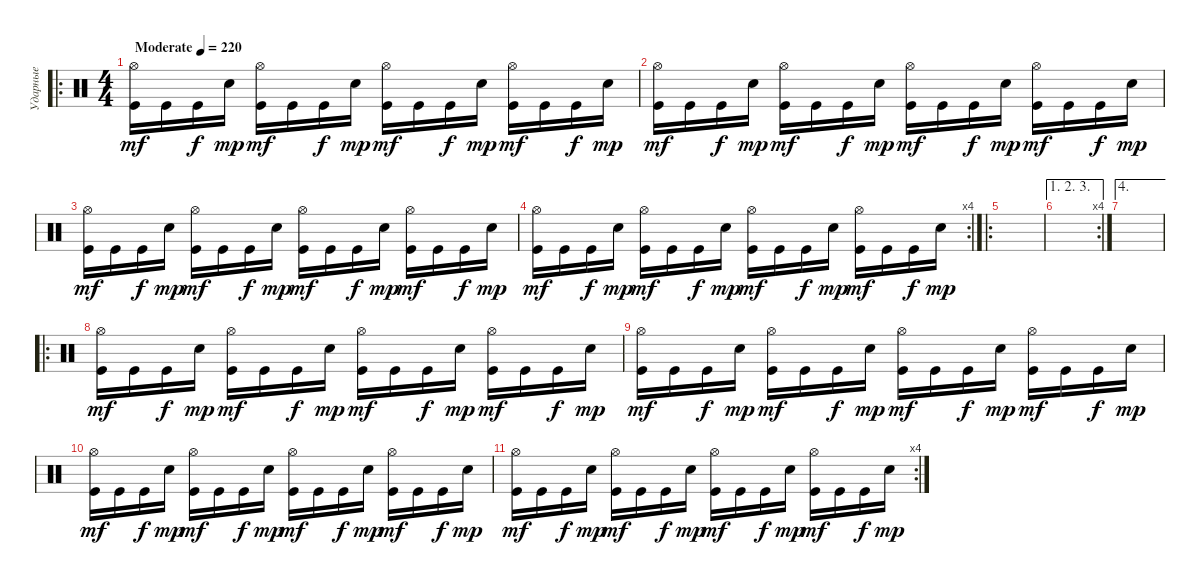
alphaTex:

\track ("Ударные" "Ударные") {instrument percussion}
\staff {score}
\articulation defaults
\ro
\ts (4 4)
\tempo (220 "Moderate")
\clef neutral
\ks c
("Hi-Hat (open)" "Kick (hit)").16{dy mf} "Kick (hit)".16 "Kick (hit)".16{dy f} "Electric Snare (hit)".16{dy mp} ("Hi-Hat (open)" "Kick (hit)").16{dy mf} "Kick (hit)".16 "Kick (hit)".16{dy f} "Electric Snare (hit)".16{dy mp} ("Hi-Hat (open)" "Kick (hit)").16{dy mf} "Kick (hit)".16 "Kick (hit)".16{dy f} "Electric Snare (hit)".16{dy mp} ("Hi-Hat (open)" "Kick (hit)").16{dy mf} "Kick (hit)".16 "Kick (hit)".16{dy f} "Electric Snare (hit)".16{dy mp} |
("Hi-Hat (open)" "Kick (hit)").16{dy mf} "Kick (hit)".16 "Kick (hit)".16{dy f} "Electric Snare (hit)".16{dy mp} ("Hi-Hat (open)" "Kick (hit)").16{dy mf} "Kick (hit)".16 "Kick (hit)".16{dy f} "Electric Snare (hit)".16{dy mp} ("Hi-Hat (open)" "Kick (hit)").16{dy mf} "Kick (hit)".16 "Kick (hit)".16{dy f} "Electric Snare (hit)".16{dy mp} ("Hi-Hat (open)" "Kick (hit)").16{dy mf} "Kick (hit)".16 "Kick (hit)".16{dy f} "Electric Snare (hit)".16{dy mp} |
("Hi-Hat (open)" "Kick (hit)").16{dy mf} "Kick (hit)".16 "Kick (hit)".16{dy f} "Electric Snare (hit)".16{dy mp} ("Hi-Hat (open)" "Kick (hit)").16{dy mf} "Kick (hit)".16 "Kick (hit)".16{dy f} "Electric Snare (hit)".16{dy mp} ("Hi-Hat (open)" "Kick (hit)").16{dy mf} "Kick (hit)".16 "Kick (hit)".16{dy f} "Electric Snare (hit)".16{dy mp} ("Hi-Hat (open)" "Kick (hit)").16{dy mf} "Kick (hit)".16 "Kick (hit)".16{dy f} "Electric Snare (hit)".16{dy mp} |
\rc 4
("Hi-Hat (open)" "Kick (hit)").16{dy mf} "Kick (hit)".16 "Kick (hit)".16{dy f} "Electric Snare (hit)".16{dy mp} ("Hi-Hat (open)" "Kick (hit)").16{dy mf} "Kick (hit)".16 "Kick (hit)".16{dy f} "Electric Snare (hit)".16{dy mp} ("Hi-Hat (open)" "Kick (hit)").16{dy mf} "Kick (hit)".16 "Kick (hit)".16{dy f} "Electric Snare (hit)".16{dy mp} ("Hi-Hat (open)" "Kick (hit)").16{dy mf} "Kick (hit)".16 "Kick (hit)".16{dy f} "Electric Snare (hit)".16{dy mp} |
\ro
|
\ae (1 2 3)
\rc 4
|
\ae 4
|
\ro
("Hi-Hat (open)" "Kick (hit)").16{dy mf} "Kick (hit)".16 "Kick (hit)".16{dy f} "Electric Snare (hit)".16{dy mp} ("Hi-Hat (open)" "Kick (hit)").16{dy mf} "Kick (hit)".16 "Kick (hit)".16{dy f} "Electric Snare (hit)".16{dy mp} ("Hi-Hat (open)" "Kick (hit)").16{dy mf} "Kick (hit)".16 "Kick (hit)".16{dy f} "Electric Snare (hit)".16{dy mp} ("Hi-Hat (open)" "Kick (hit)").16{dy mf} "Kick (hit)".16 "Kick (hit)".16{dy f} "Electric Snare (hit)".16{dy mp} |
("Hi-Hat (open)" "Kick (hit)").16{dy mf} "Kick (hit)".16 "Kick (hit)".16{dy f} "Electric Snare (hit)".16{dy mp} ("Hi-Hat (open)" "Kick (hit)").16{dy mf} "Kick (hit)".16 "Kick (hit)".16{dy f} "Electric Snare (hit)".16{dy mp} ("Hi-Hat (open)" "Kick (hit)").16{dy mf} "Kick (hit)".16 "Kick (hit)".16{dy f} "Electric Snare (hit)".16{dy mp} ("Hi-Hat (open)" "Kick (hit)").16{dy mf} "Kick (hit)".16 "Kick (hit)".16{dy f} "Electric Snare (hit)".16{dy mp} |
("Hi-Hat (open)" "Kick (hit)").16{dy mf} "Kick (hit)".16 "Kick (hit)".16{dy f} "Electric Snare (hit)".16{dy mp} ("Hi-Hat (open)" "Kick (hit)").16{dy mf} "Kick (hit)".16 "Kick (hit)".16{dy f} "Electric Snare (hit)".16{dy mp} ("Hi-Hat (open)" "Kick (hit)").16{dy mf} "Kick (hit)".16 "Kick (hit)".16{dy f} "Electric Snare (hit)".16{dy mp} ("Hi-Hat (open)" "Kick (hit)").16{dy mf} "Kick (hit)".16 "Kick (hit)".16{dy f} "Electric Snare (hit)".16{dy mp} |
\rc 4
("Hi-Hat (open)" "Kick (hit)").16{dy mf} "Kick (hit)".16 "Kick (hit)".16{dy f} "Electric Snare (hit)".16{dy mp} ("Hi-Hat (open)" "Kick (hit)").16{dy mf} "Kick (hit)".16 "Kick (hit)".16{dy f} "Electric Snare (hit)".16{dy mp} ("Hi-Hat (open)" "Kick (hit)").16{dy mf} "Kick (hit)".16 "Kick (hit)".16{dy f} "Electric Snare (hit)".16{dy mp} ("Hi-Hat (open)" "Kick (hit)").16{dy mf} "Kick (hit)".16 "Kick (hit)".16{dy f} "Electric Snare (hit)".16{dy mp}
